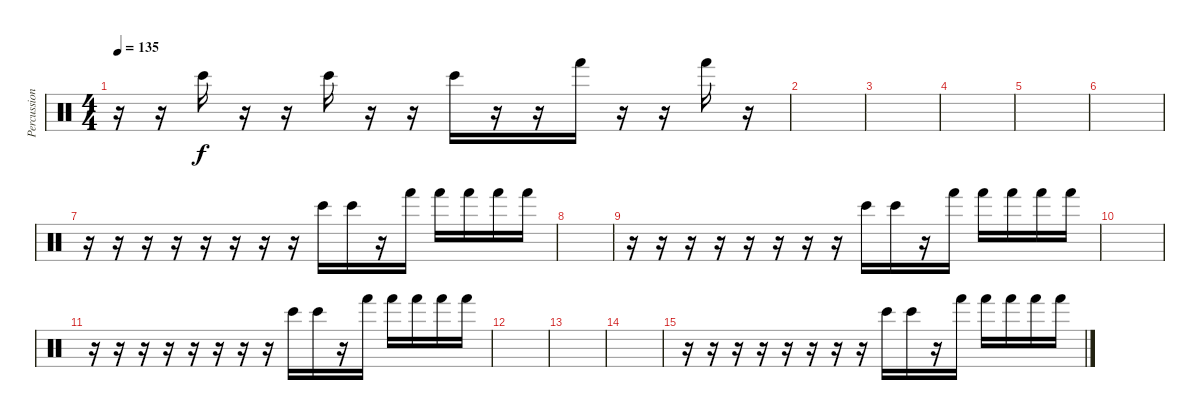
\track ("Percussion" "Percussion") {instrument percussion}
\staff {score}
\articulation defaults
\ts (4 4)
\tempo 135
\clef neutral
\ks c
r.16{dy f} r.16 "Bongo High (hit)".16 r.16 r.16 "Bongo High (hit)".16 r.16 r.16 "Bongo High (hit)".16 r.16 r.16 "Hand (hit)".16 r.16 r.16 "Hand (hit)".16 r.16 |
|
|
|
|
|
r.16 r.16 r.16 r.16 r.16 r.16 r.16 r.16 "Bongo High (hit)".16 "Bongo High (hit)".16 r.16 "Hand (hit)".16 "Hand (hit)".16 "Hand (hit)".16 "Hand (hit)".16 "Hand (hit)".16 |
|
r.16 r.16 r.16 r.16 r.16 r.16 r.16 r.16 "Bongo High (hit)".16 "Bongo High (hit)".16 r.16 "Hand (hit)".16 "Hand (hit)".16 "Hand (hit)".16 "Hand (hit)".16 "Hand (hit)".16 |
|
r.16 r.16 r.16 r.16 r.16 r.16 r.16 r.16 "Bongo High (hit)".16 "Bongo High (hit)".16 r.16 "Hand (hit)".16 "Hand (hit)".16 "Hand (hit)".16 "Hand (hit)".16 "Hand (hit)".16 |
|
|
|
r.16 r.16 r.16 r.16 r.16 r.16 r.16 r.16 "Bongo High (hit)".16 "Bongo High (hit)".16 r.16 "Hand (hit)".16 "Hand (hit)".16 "Hand (hit)".16 "Hand (hit)".16 "Hand (hit)".16
